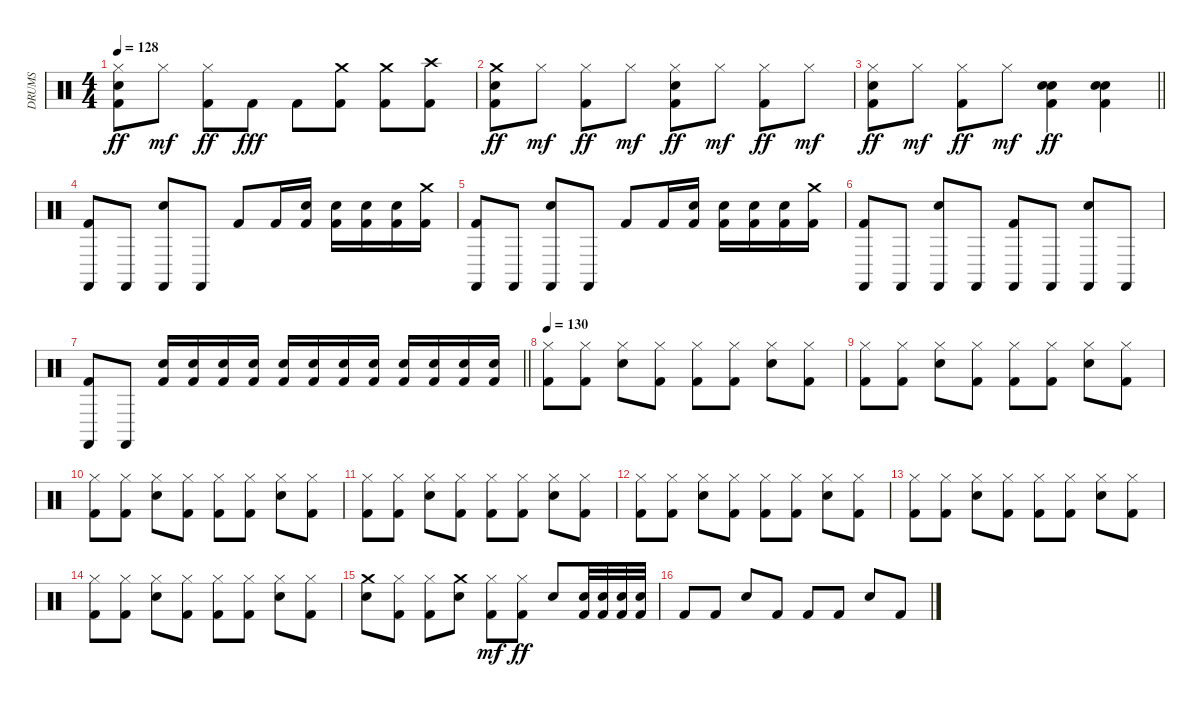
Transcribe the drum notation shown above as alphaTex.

\track ("DRUMS" "DRUMS") {instrument percussion}
\staff {score}
\articulation defaults
\ts (4 4)
\tempo 128
\clef neutral
\ks c
("Hi-Hat (closed)" "Snare (hit) 2" "Kick (hit) 2").8{dy ff} "Hi-Hat (closed)".8{dy mf} ("Hi-Hat (closed)" "Kick (hit) 2").8{dy ff} "Kick (hit) 2".8{dy fff} "Kick (hit) 2".8 ("Crash medium (hit)" "Kick (hit) 2").8 ("Crash medium (hit)" "Kick (hit) 2").8 ("Crash high (hit)" "Kick (hit) 2").8 |
("Crash medium (hit)" "Snare (hit) 2" "Kick (hit) 2").8{dy ff} "Hi-Hat (closed)".8{dy mf} ("Hi-Hat (closed)" "Kick (hit) 2").8{dy ff} "Hi-Hat (closed)".8{dy mf} ("Hi-Hat (closed)" "Snare (hit) 2" "Kick (hit) 2").8{dy ff} "Hi-Hat (closed)".8{dy mf} ("Hi-Hat (closed)" "Kick (hit) 2").8{dy ff} "Hi-Hat (closed)".8{dy mf} |
\barLineRight lightlight
("Hi-Hat (closed)" "Snare (hit) 2" "Kick (hit) 2").8{dy ff} "Hi-Hat (closed)".8{dy mf} ("Hi-Hat (closed)" "Kick (hit) 2").8{dy ff} "Hi-Hat (closed)".8{dy mf} ("Electric Snare (hit)" "Snare (hit) 2" "Kick (hit) 2").4{dy ff} ("Electric Snare (hit)" "Snare (hit) 2" "Kick (hit) 2").4 |
("Castanets (hit)" "Kick (hit) 2").8 "Castanets (hit)".8 ("Castanets (hit)" "Snare (hit) 2").8 "Castanets (hit)".8 "Kick (hit) 2".8 "Kick (hit) 2".16 ("Snare (hit) 2" "Kick (hit) 2").16 ("Snare (hit) 2" "Kick (hit) 2").16 ("Snare (hit) 2" "Kick (hit) 2").16 ("Snare (hit) 2" "Kick (hit) 2").16 ("Crash medium (hit)" "Kick (hit) 2").16 |
("Castanets (hit)" "Kick (hit) 2").8 "Castanets (hit)".8 ("Castanets (hit)" "Snare (hit) 2").8 "Castanets (hit)".8 "Kick (hit) 2".8 "Kick (hit) 2".16 ("Snare (hit) 2" "Kick (hit) 2").16 ("Snare (hit) 2" "Kick (hit) 2").16 ("Snare (hit) 2" "Kick (hit) 2").16 ("Snare (hit) 2" "Kick (hit) 2").16 ("Crash medium (hit)" "Kick (hit) 2").16 |
("Castanets (hit)" "Kick (hit) 2").8 "Castanets (hit)".8 ("Castanets (hit)" "Snare (hit) 2").8 "Castanets (hit)".8 ("Castanets (hit)" "Kick (hit) 2").8 "Castanets (hit)".8 ("Castanets (hit)" "Snare (hit) 2").8 "Castanets (hit)".8 |
\barLineRight lightlight
("Castanets (hit)" "Kick (hit) 2").8 "Castanets (hit)".8 ("Snare (hit) 2" "Kick (hit) 2").16 ("Snare (hit) 2" "Kick (hit) 2").16 ("Snare (hit) 2" "Kick (hit) 2").16 ("Snare (hit) 2" "Kick (hit) 2").16 ("Snare (hit) 2" "Kick (hit) 2").16 ("Snare (hit) 2" "Kick (hit) 2").16 ("Snare (hit) 2" "Kick (hit) 2").16 ("Snare (hit) 2" "Kick (hit) 2").16 ("Snare (hit) 2" "Kick (hit) 2").16 ("Snare (hit) 2" "Kick (hit) 2").16 ("Snare (hit) 2" "Kick (hit) 2").16 ("Snare (hit) 2" "Kick (hit) 2").16 |
\tempo 130
("Hi-Hat (closed)" "Kick (hit) 2").8 ("Hi-Hat (closed)" "Kick (hit) 2").8 ("Hi-Hat (closed)" "Snare (hit) 2").8 ("Hi-Hat (closed)" "Kick (hit) 2").8 ("Hi-Hat (closed)" "Kick (hit) 2").8 ("Hi-Hat (closed)" "Kick (hit) 2").8 ("Hi-Hat (closed)" "Snare (hit) 2").8 ("Hi-Hat (closed)" "Kick (hit) 2").8 |
("Hi-Hat (closed)" "Kick (hit) 2").8 ("Hi-Hat (closed)" "Kick (hit) 2").8 ("Hi-Hat (closed)" "Snare (hit) 2").8 ("Hi-Hat (closed)" "Kick (hit) 2").8 ("Hi-Hat (closed)" "Kick (hit) 2").8 ("Hi-Hat (closed)" "Kick (hit) 2").8 ("Hi-Hat (closed)" "Snare (hit) 2").8 ("Hi-Hat (closed)" "Kick (hit) 2").8 |
("Hi-Hat (closed)" "Kick (hit) 2").8 ("Hi-Hat (closed)" "Kick (hit) 2").8 ("Hi-Hat (closed)" "Snare (hit) 2").8 ("Hi-Hat (closed)" "Kick (hit) 2").8 ("Hi-Hat (closed)" "Kick (hit) 2").8 ("Hi-Hat (closed)" "Kick (hit) 2").8 ("Hi-Hat (closed)" "Snare (hit) 2").8 ("Hi-Hat (closed)" "Kick (hit) 2").8 |
("Hi-Hat (closed)" "Kick (hit) 2").8 ("Hi-Hat (closed)" "Kick (hit) 2").8 ("Hi-Hat (closed)" "Snare (hit) 2").8 ("Hi-Hat (closed)" "Kick (hit) 2").8 ("Hi-Hat (closed)" "Kick (hit) 2").8 ("Hi-Hat (closed)" "Kick (hit) 2").8 ("Hi-Hat (closed)" "Snare (hit) 2").8 ("Hi-Hat (closed)" "Kick (hit) 2").8 |
("Hi-Hat (closed)" "Kick (hit) 2").8 ("Hi-Hat (closed)" "Kick (hit) 2").8 ("Hi-Hat (closed)" "Snare (hit) 2").8 ("Hi-Hat (closed)" "Kick (hit) 2").8 ("Hi-Hat (closed)" "Kick (hit) 2").8 ("Hi-Hat (closed)" "Kick (hit) 2").8 ("Hi-Hat (closed)" "Snare (hit) 2").8 ("Hi-Hat (closed)" "Kick (hit) 2").8 |
("Hi-Hat (closed)" "Kick (hit) 2").8 ("Hi-Hat (closed)" "Kick (hit) 2").8 ("Hi-Hat (closed)" "Snare (hit) 2").8 ("Hi-Hat (closed)" "Kick (hit) 2").8 ("Hi-Hat (closed)" "Kick (hit) 2").8 ("Hi-Hat (closed)" "Kick (hit) 2").8 ("Hi-Hat (closed)" "Snare (hit) 2").8 ("Hi-Hat (closed)" "Kick (hit) 2").8 |
("Hi-Hat (closed)" "Kick (hit) 2").8 ("Hi-Hat (closed)" "Kick (hit) 2").8 ("Hi-Hat (closed)" "Snare (hit) 2").8 ("Hi-Hat (closed)" "Kick (hit) 2").8 ("Hi-Hat (closed)" "Kick (hit) 2").8 ("Hi-Hat (closed)" "Kick (hit) 2").8 ("Hi-Hat (closed)" "Snare (hit) 2").8 ("Hi-Hat (closed)" "Kick (hit) 2").8 |
("Crash medium (hit)" "Snare (hit) 2").8 ("Hi-Hat (closed)" "Kick (hit) 2").8 ("Hi-Hat (closed)" "Kick (hit) 2").8 ("Crash medium (hit)" "Snare (hit) 2").8 ("Hi-Hat (closed)" "Kick (hit) 2").8{dy mf} ("Hi-Hat (closed)" "Kick (hit) 2").8{dy ff} "Snare (hit) 2".8 ("Snare (hit) 2" "Kick (hit) 2").32 ("Snare (hit) 2" "Kick (hit) 2").32 ("Snare (hit) 2" "Kick (hit) 2").32 ("Snare (hit) 2" "Kick (hit) 2").32 |
"Kick (hit) 2".8 "Kick (hit) 2".8 "Snare (hit) 2".8 "Kick (hit) 2".8 "Kick (hit) 2".8 "Kick (hit) 2".8 "Snare (hit) 2".8 "Kick (hit) 2".8
